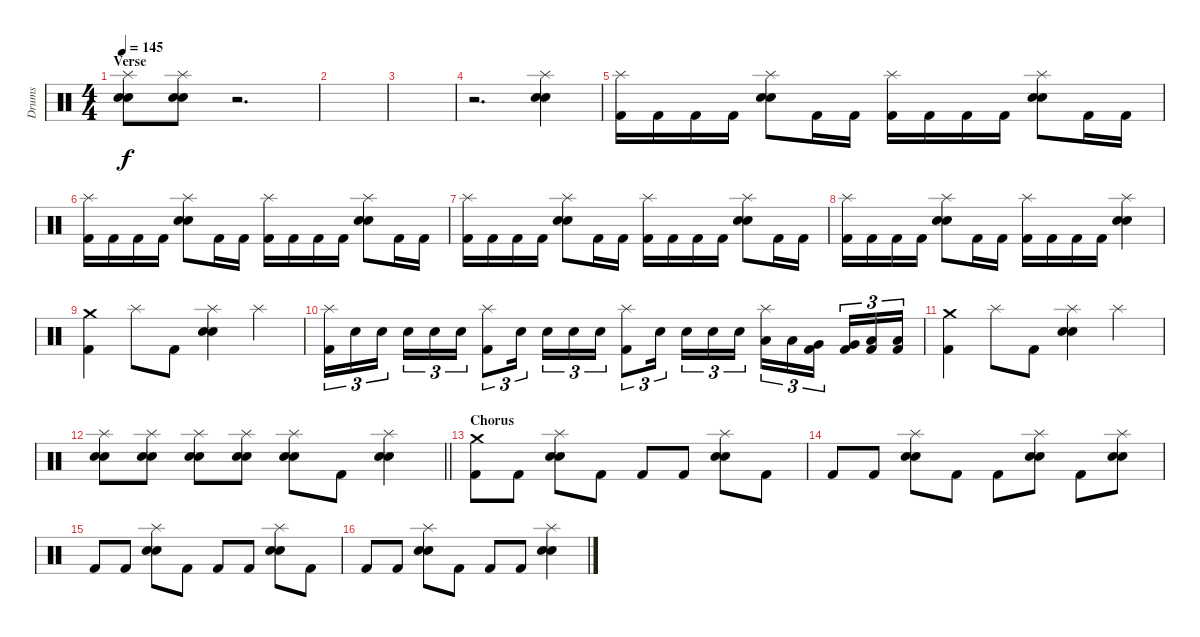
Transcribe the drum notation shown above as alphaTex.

\track ("Drums" "Drums") {instrument percussion}
\staff {score}
\articulation defaults
\ts (4 4)
\section ("" "Verse")
\tempo 145
\clef neutral
\ks c
("Splash (hit)" "Electric Snare (hit)" "Snare (hit) 2").8{dy f} ("Splash (hit)" "Electric Snare (hit)" "Snare (hit) 2").8 r.2{d} |
|
|
r.2{d} ("Splash (hit)" "Electric Snare (hit)" "Snare (hit) 2").4 |
("Splash (hit)" "Kick (hit) 2").16 "Kick (hit) 2".16 "Kick (hit) 2".16 "Kick (hit) 2".16 ("Splash (hit)" "Electric Snare (hit)" "Snare (hit) 2").8 "Kick (hit) 2".16 "Kick (hit) 2".16 ("Splash (hit)" "Kick (hit) 2").16 "Kick (hit) 2".16 "Kick (hit) 2".16 "Kick (hit) 2".16 ("Splash (hit)" "Electric Snare (hit)" "Snare (hit) 2").8 "Kick (hit) 2".16 "Kick (hit) 2".16 |
("Splash (hit)" "Kick (hit) 2").16 "Kick (hit) 2".16 "Kick (hit) 2".16 "Kick (hit) 2".16 ("Splash (hit)" "Electric Snare (hit)" "Snare (hit) 2").8 "Kick (hit) 2".16 "Kick (hit) 2".16 ("Splash (hit)" "Kick (hit) 2").16 "Kick (hit) 2".16 "Kick (hit) 2".16 "Kick (hit) 2".16 ("Splash (hit)" "Electric Snare (hit)" "Snare (hit) 2").8 "Kick (hit) 2".16 "Kick (hit) 2".16 |
("Splash (hit)" "Kick (hit) 2").16 "Kick (hit) 2".16 "Kick (hit) 2".16 "Kick (hit) 2".16 ("Splash (hit)" "Electric Snare (hit)" "Snare (hit) 2").8 "Kick (hit) 2".16 "Kick (hit) 2".16 ("Splash (hit)" "Kick (hit) 2").16 "Kick (hit) 2".16 "Kick (hit) 2".16 "Kick (hit) 2".16 ("Splash (hit)" "Electric Snare (hit)" "Snare (hit) 2").8 "Kick (hit) 2".16 "Kick (hit) 2".16 |
("Splash (hit)" "Kick (hit) 2").16 "Kick (hit) 2".16 "Kick (hit) 2".16 "Kick (hit) 2".16 ("Splash (hit)" "Electric Snare (hit)" "Snare (hit) 2").8 "Kick (hit) 2".16 "Kick (hit) 2".16 ("Splash (hit)" "Kick (hit) 2").16 "Kick (hit) 2".16 "Kick (hit) 2".16 "Kick (hit) 2".16 ("Splash (hit)" "Electric Snare (hit)" "Snare (hit) 2").4 |
("Crash medium (hit)" "Kick (hit) 2").4 "Splash (hit)".8 "Kick (hit) 2".8 ("Splash (hit)" "Electric Snare (hit)" "Snare (hit) 2").4 "Splash (hit)".4 |
("Splash (hit)" "Kick (hit) 2").16{tu (3 2)} "Electric Snare (hit)".16{tu (3 2)} "Electric Snare (hit)".16{tu (3 2) beam splitsecondary} "Electric Snare (hit)".16{tu (3 2)} "Electric Snare (hit)".16{tu (3 2)} "Electric Snare (hit)".16{tu (3 2)} ("Splash (hit)" "Kick (hit) 2").8{tu (3 2)} "Electric Snare (hit)".16{tu (3 2) beam splitsecondary} "Electric Snare (hit)".16{tu (3 2)} "Electric Snare (hit)".16{tu (3 2)} "Electric Snare (hit)".16{tu (3 2)} ("Splash (hit)" "Kick (hit) 2").8{tu (3 2)} "Electric Snare (hit)".16{tu (3 2) beam splitsecondary} "Electric Snare (hit)".16{tu (3 2)} "Electric Snare (hit)".16{tu (3 2)} "Electric Snare (hit)".16{tu (3 2)} ("Splash (hit)" "Low Tom (hit)").16{tu (3 2)} "Low Tom (hit)".16{tu (3 2)} ("Very Low Tom (hit)" "Kick (hit) 2").16{tu (3 2) beam splitsecondary} ("Very Low Tom (hit)" "Kick (hit) 2").16{tu (3 2)} ("Low Floor Tom (hit)" "Kick (hit) 2").16{tu (3 2)} ("Low Floor Tom (hit)" "Kick (hit) 2").16{tu (3 2)} |
("Crash medium (hit)" "Kick (hit) 2").4 "Splash (hit)".8 "Kick (hit) 2".8 ("Splash (hit)" "Electric Snare (hit)" "Snare (hit) 2").4 "Splash (hit)".4 |
\barLineRight lightlight
("Splash (hit)" "Electric Snare (hit)" "Snare (hit) 2").8 ("Splash (hit)" "Electric Snare (hit)" "Snare (hit) 2").8 ("Splash (hit)" "Electric Snare (hit)" "Snare (hit) 2").8 ("Splash (hit)" "Electric Snare (hit)" "Snare (hit) 2").8 ("Splash (hit)" "Electric Snare (hit)" "Snare (hit) 2").8 "Kick (hit) 2".8 ("Splash (hit)" "Electric Snare (hit)" "Snare (hit) 2").4 |
\section ("" "Chorus")
("Crash medium (hit)" "Kick (hit) 2").8 "Kick (hit) 2".8 ("Splash (hit)" "Electric Snare (hit)" "Snare (hit) 2").8 "Kick (hit) 2".8 "Kick (hit) 2".8 "Kick (hit) 2".8 ("Splash (hit)" "Electric Snare (hit)" "Snare (hit) 2").8 "Kick (hit) 2".8 |
"Kick (hit) 2".8 "Kick (hit) 2".8 ("Splash (hit)" "Electric Snare (hit)" "Snare (hit) 2").8 "Kick (hit) 2".8 "Kick (hit) 2".8 ("Splash (hit)" "Electric Snare (hit)" "Snare (hit) 2").8 "Kick (hit) 2".8 ("Splash (hit)" "Electric Snare (hit)" "Snare (hit) 2").8 |
"Kick (hit) 2".8 "Kick (hit) 2".8 ("Splash (hit)" "Electric Snare (hit)" "Snare (hit) 2").8 "Kick (hit) 2".8 "Kick (hit) 2".8 "Kick (hit) 2".8 ("Splash (hit)" "Electric Snare (hit)" "Snare (hit) 2").8 "Kick (hit) 2".8 |
"Kick (hit) 2".8 "Kick (hit) 2".8 ("Splash (hit)" "Electric Snare (hit)" "Snare (hit) 2").8 "Kick (hit) 2".8 "Kick (hit) 2".8 "Kick (hit) 2".8 ("Splash (hit)" "Electric Snare (hit)" "Snare (hit) 2").4
